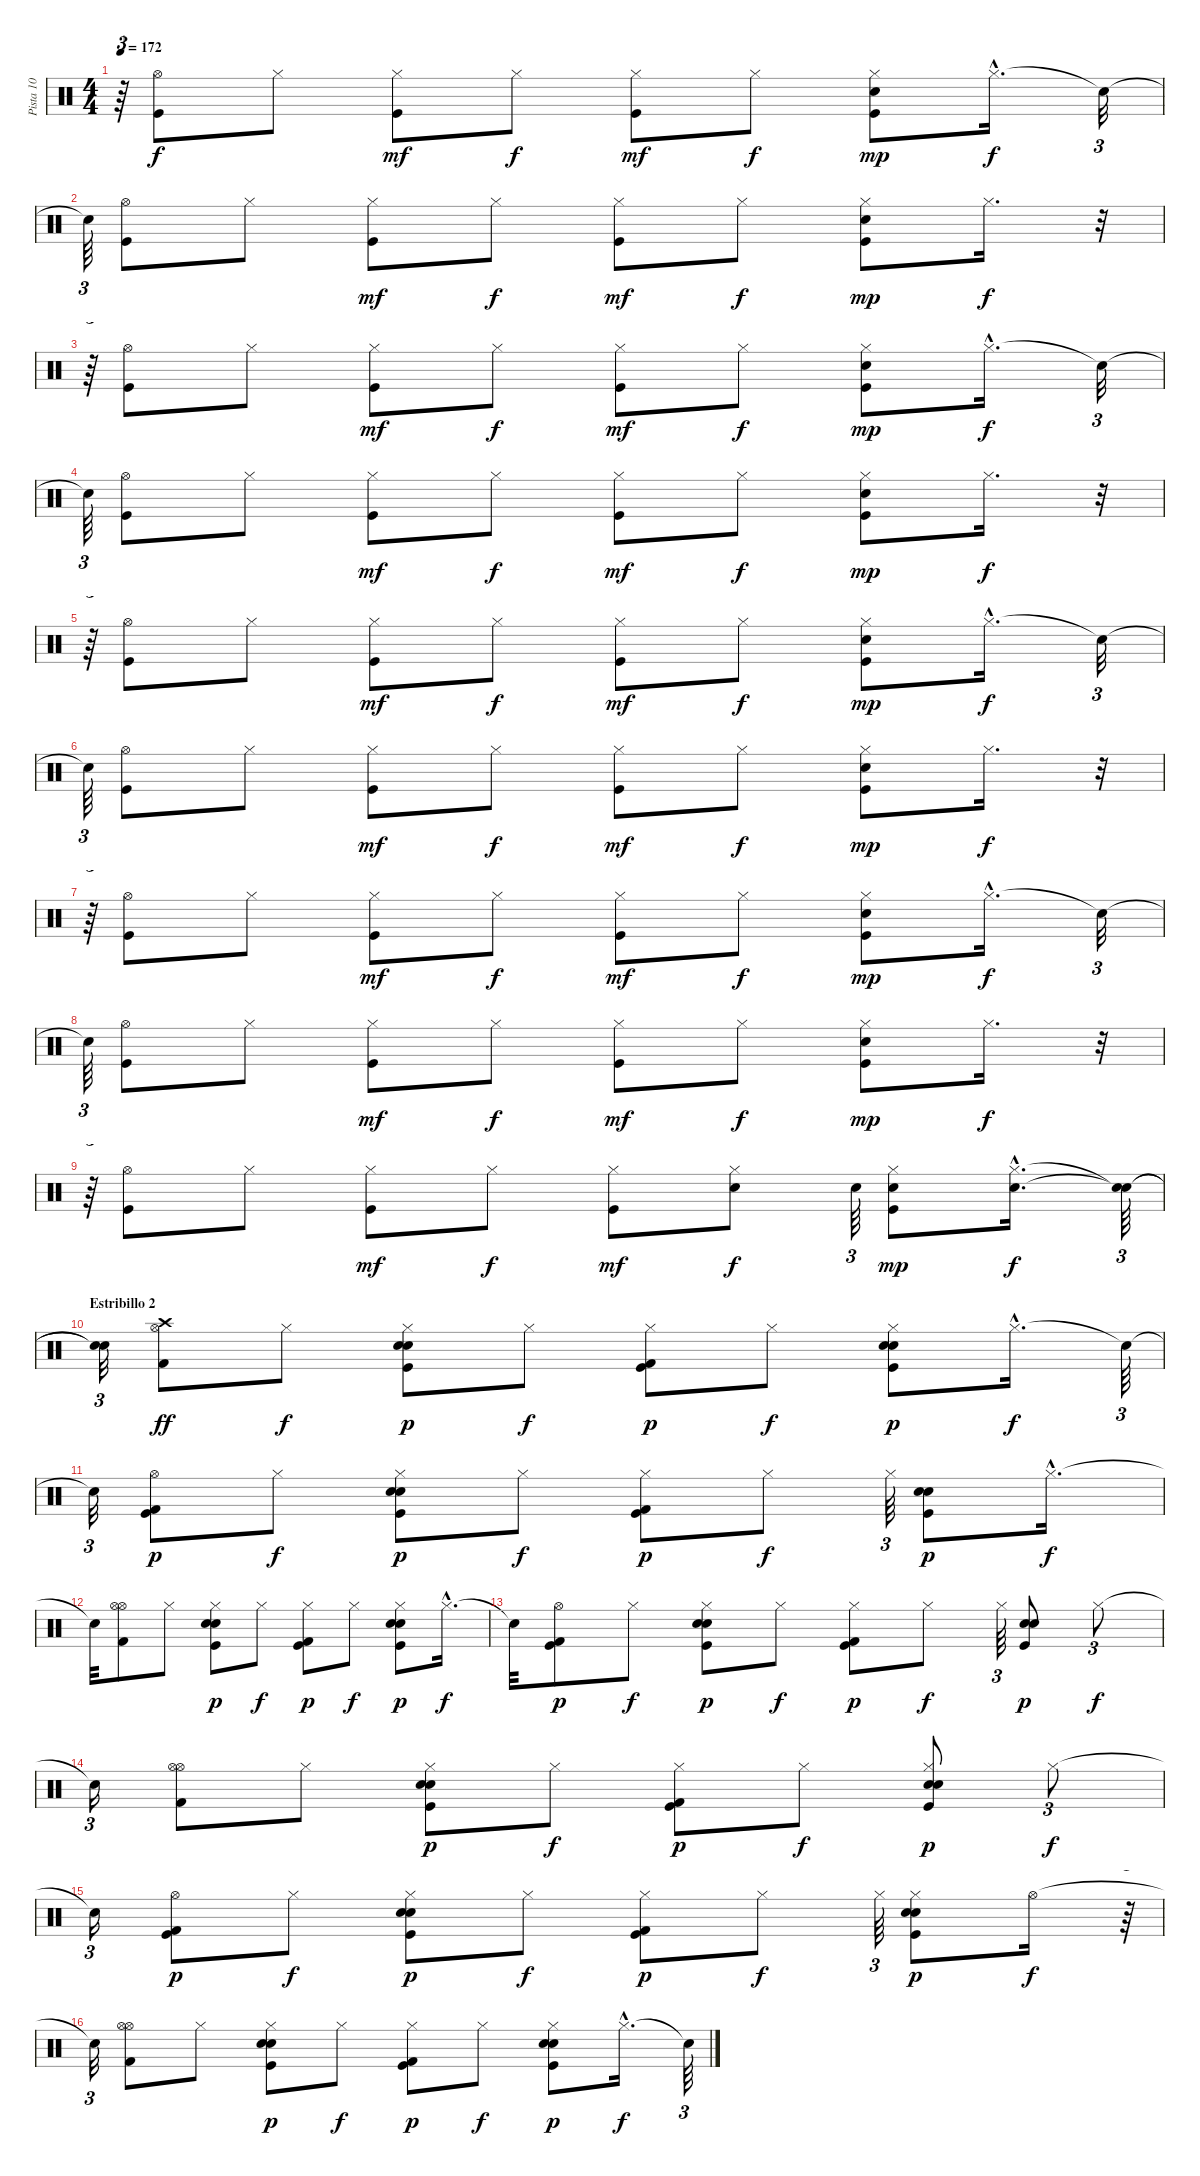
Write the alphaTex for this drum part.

\track ("Pista 10" "Pista 10") {instrument percussion}
\staff {score}
\articulation defaults
\ts (4 4)
\tempo 172
\clef neutral
\ks c
r.64{tu (3 2) dy f} ("Hi-Hat (open)" "Kick (hit)").8 "Hi-Hat (closed)".8 ("Kick (hit)" "Hi-Hat (closed)").8{dy mf} "Hi-Hat (closed)".8{dy f} ("Kick (hit)" "Hi-Hat (closed)").8{dy mf} "Hi-Hat (closed)".8{dy f} ("Snare (hit) 2" "Hi-Hat (closed)" "Kick (hit)").8{dy mp} "Hi-Hat (closed)"{hac}.16{d dy f} "Snare (hit)"{t}.32{tu (3 2)} |
"Snare (hit)"{t}.64{tu (3 2)} ("Kick (hit)" "Hi-Hat (open)").8 "Hi-Hat (closed)".8 ("Hi-Hat (closed)" "Kick (hit)").8{dy mf} "Hi-Hat (closed)".8{dy f} ("Hi-Hat (closed)" "Kick (hit)").8{dy mf} "Hi-Hat (closed)".8{dy f} ("Hi-Hat (closed)" "Kick (hit)" "Snare (hit) 2").8{dy mp} "Hi-Hat (closed)".16{d dy f} r.32{tu (3 2)} |
r.64{tu (3 2)} ("Hi-Hat (open)" "Kick (hit)").8 "Hi-Hat (closed)".8 ("Kick (hit)" "Hi-Hat (closed)").8{dy mf} "Hi-Hat (closed)".8{dy f} ("Kick (hit)" "Hi-Hat (closed)").8{dy mf} "Hi-Hat (closed)".8{dy f} ("Snare (hit) 2" "Hi-Hat (closed)" "Kick (hit)").8{dy mp} "Hi-Hat (closed)"{hac}.16{d dy f} "Snare (hit)"{t}.32{tu (3 2)} |
"Snare (hit)"{t}.64{tu (3 2)} ("Kick (hit)" "Hi-Hat (open)").8 "Hi-Hat (closed)".8 ("Hi-Hat (closed)" "Kick (hit)").8{dy mf} "Hi-Hat (closed)".8{dy f} ("Hi-Hat (closed)" "Kick (hit)").8{dy mf} "Hi-Hat (closed)".8{dy f} ("Hi-Hat (closed)" "Kick (hit)" "Snare (hit) 2").8{dy mp} "Hi-Hat (closed)".16{d dy f} r.32{tu (3 2)} |
r.64{tu (3 2)} ("Hi-Hat (open)" "Kick (hit)").8 "Hi-Hat (closed)".8 ("Kick (hit)" "Hi-Hat (closed)").8{dy mf} "Hi-Hat (closed)".8{dy f} ("Kick (hit)" "Hi-Hat (closed)").8{dy mf} "Hi-Hat (closed)".8{dy f} ("Snare (hit) 2" "Hi-Hat (closed)" "Kick (hit)").8{dy mp} "Hi-Hat (closed)"{hac}.16{d dy f} "Snare (hit)"{t}.32{tu (3 2)} |
"Snare (hit)"{t}.64{tu (3 2)} ("Kick (hit)" "Hi-Hat (open)").8 "Hi-Hat (closed)".8 ("Hi-Hat (closed)" "Kick (hit)").8{dy mf} "Hi-Hat (closed)".8{dy f} ("Hi-Hat (closed)" "Kick (hit)").8{dy mf} "Hi-Hat (closed)".8{dy f} ("Hi-Hat (closed)" "Kick (hit)" "Snare (hit) 2").8{dy mp} "Hi-Hat (closed)".16{d dy f} r.32{tu (3 2)} |
r.64{tu (3 2)} ("Hi-Hat (open)" "Kick (hit)").8 "Hi-Hat (closed)".8 ("Kick (hit)" "Hi-Hat (closed)").8{dy mf} "Hi-Hat (closed)".8{dy f} ("Kick (hit)" "Hi-Hat (closed)").8{dy mf} "Hi-Hat (closed)".8{dy f} ("Snare (hit) 2" "Hi-Hat (closed)" "Kick (hit)").8{dy mp} "Hi-Hat (closed)"{hac}.16{d dy f} "Snare (hit)"{t}.32{tu (3 2)} |
"Snare (hit)"{t}.64{tu (3 2)} ("Kick (hit)" "Hi-Hat (open)").8 "Hi-Hat (closed)".8 ("Hi-Hat (closed)" "Kick (hit)").8{dy mf} "Hi-Hat (closed)".8{dy f} ("Hi-Hat (closed)" "Kick (hit)").8{dy mf} "Hi-Hat (closed)".8{dy f} ("Hi-Hat (closed)" "Kick (hit)" "Snare (hit) 2").8{dy mp} "Hi-Hat (closed)".16{d dy f} r.32{tu (3 2)} |
r.64{tu (3 2)} ("Hi-Hat (open)" "Kick (hit)").8 "Hi-Hat (closed)".8 ("Kick (hit)" "Hi-Hat (closed)").8{dy mf} "Hi-Hat (closed)".8{dy f} ("Kick (hit)" "Hi-Hat (closed)").8{dy mf} ("Hi-Hat (closed)" "Snare (hit) 2").8{dy f} "Snare (hit) 2".64{tu (3 2)} ("Snare (hit) 2" "Hi-Hat (closed)" "Kick (hit)").8{dy mp} ("Snare (hit) 2"{hac} "Hi-Hat (closed)"{hac}).16{d dy f} ("Snare (hit)"{t} "Snare (hit)"{t}).64{tu (3 2)} |
\section ("" "Estribillo 2")
("Snare (hit)"{t} "Snare (hit)"{t}).32{tu (3 2)} ("Hi-Hat (open)" "Kick (hit) 2" "Crash high (hit)").8{dy ff} "Hi-Hat (closed)".8{dy f} ("Hi-Hat (closed)" "Electric Snare (hit)" "Snare (hit) 2" "Kick (hit)").8{dy p} "Hi-Hat (closed)".8{dy f} ("Kick (hit) 2" "Kick (hit)" "Hi-Hat (closed)").8{dy p} "Hi-Hat (closed)".8{dy f} ("Snare (hit) 2" "Electric Snare (hit)" "Kick (hit)" "Hi-Hat (closed)").8{dy p} "Hi-Hat (closed)"{hac}.16{d dy f} "Snare (hit)"{t}.64{tu (3 2)} |
"Snare (hit)"{t}.32{tu (3 2)} ("Hi-Hat (open)" "Kick (hit) 2" "Kick (hit)").8{dy p} "Hi-Hat (closed)".8{dy f} ("Hi-Hat (closed)" "Snare (hit) 2" "Electric Snare (hit)" "Kick (hit)").8{dy p} "Hi-Hat (closed)".8{dy f} ("Hi-Hat (closed)" "Kick (hit) 2" "Kick (hit)").8{dy p} "Hi-Hat (closed)".8{dy f} "Hi-Hat (closed)".64{tu (3 2)} ("Snare (hit) 2" "Electric Snare (hit)" "Kick (hit)").8{dy p} "Hi-Hat (closed)"{hac}.16{d dy f} |
"Snare (hit)"{t}.32 ("Hi-Hat (open)" "Hi-Hat (open)" "Kick (hit) 2").8 "Hi-Hat (closed)".8 ("Hi-Hat (closed)" "Electric Snare (hit)" "Snare (hit) 2" "Kick (hit)").8{dy p} "Hi-Hat (closed)".8{dy f} ("Kick (hit) 2" "Kick (hit)" "Hi-Hat (closed)").8{dy p} "Hi-Hat (closed)".8{dy f} ("Snare (hit) 2" "Electric Snare (hit)" "Kick (hit)" "Hi-Hat (closed)").8{dy p} "Hi-Hat (closed)"{hac}.16{d dy f} |
"Snare (hit)"{t}.32 ("Hi-Hat (open)" "Kick (hit) 2" "Kick (hit)").8{dy p} "Hi-Hat (closed)".8{dy f} ("Hi-Hat (closed)" "Snare (hit) 2" "Electric Snare (hit)" "Kick (hit)").8{dy p} "Hi-Hat (closed)".8{dy f} ("Hi-Hat (closed)" "Kick (hit) 2" "Kick (hit)").8{dy p} "Hi-Hat (closed)".8{dy f} "Hi-Hat (closed)".64{tu (3 2)} ("Snare (hit) 2" "Electric Snare (hit)" "Kick (hit)").8{dy p} "Hi-Hat (closed)".8{tu (3 2) dy f} |
"Snare (hit)"{t}.16{tu (3 2)} ("Hi-Hat (open)" "Hi-Hat (open)" "Kick (hit) 2").8 "Hi-Hat (closed)".8 ("Hi-Hat (closed)" "Electric Snare (hit)" "Snare (hit) 2" "Kick (hit)").8{dy p} "Hi-Hat (closed)".8{dy f} ("Kick (hit) 2" "Kick (hit)" "Hi-Hat (closed)").8{dy p} "Hi-Hat (closed)".8{dy f} ("Snare (hit) 2" "Electric Snare (hit)" "Kick (hit)" "Hi-Hat (closed)").8{dy p} "Hi-Hat (closed)".8{tu (3 2) dy f} |
"Snare (hit)"{t}.16{tu (3 2)} ("Hi-Hat (open)" "Kick (hit) 2" "Kick (hit)").8{dy p} "Hi-Hat (closed)".8{dy f} ("Hi-Hat (closed)" "Snare (hit) 2" "Electric Snare (hit)" "Kick (hit)").8{dy p} "Hi-Hat (closed)".8{dy f} ("Hi-Hat (closed)" "Kick (hit) 2" "Kick (hit)").8{dy p} "Hi-Hat (closed)".8{dy f} "Hi-Hat (closed)".64{tu (3 2)} ("Snare (hit) 2" "Electric Snare (hit)" "Kick (hit)" "Hi-Hat (closed)").8{dy p} "Hi-Hat (open)".16{dy f} r.64{tu (3 2)} |
"Snare (hit)"{t}.32{tu (3 2)} ("Hi-Hat (open)" "Hi-Hat (open)" "Kick (hit) 2").8 "Hi-Hat (closed)".8 ("Hi-Hat (closed)" "Electric Snare (hit)" "Snare (hit) 2" "Kick (hit)").8{dy p} "Hi-Hat (closed)".8{dy f} ("Kick (hit) 2" "Kick (hit)" "Hi-Hat (closed)").8{dy p} "Hi-Hat (closed)".8{dy f} ("Snare (hit) 2" "Electric Snare (hit)" "Kick (hit)" "Hi-Hat (closed)").8{dy p} "Hi-Hat (closed)"{hac}.16{d dy f} "Snare (hit)"{t}.64{tu (3 2)}
